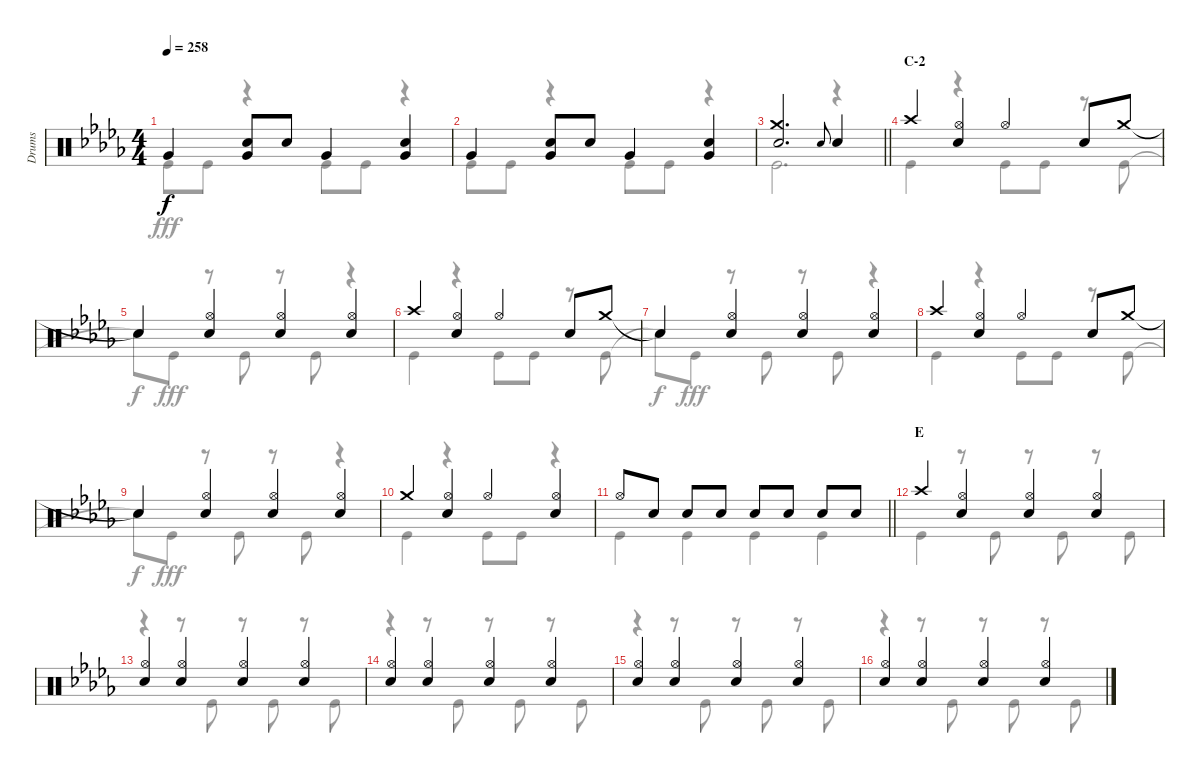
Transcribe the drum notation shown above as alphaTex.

\track ("Drums" "Drums") {instrument percussion}
\staff {score}
\articulation defaults
\voice
\ts (4 4)
\tempo 258
\clef neutral
\ks db "Very Low Tom (hit)".4{dy f}
("Snare (hit) 2" "Very Low Tom (hit)").8 "Snare (hit) 2".8 "Very Low Tom (hit)".4 ("Snare (hit) 2" "Very Low Tom (hit)").4 |
"Very Low Tom (hit)".4 ("Snare (hit) 2" "Very Low Tom (hit)").8 "Snare (hit) 2".8 "Very Low Tom (hit)".4 ("Snare (hit) 2" "Very Low Tom (hit)").4 |
\barLineRight lightlight
("Crash medium (hit)" "Snare (hit) 2").2{d} "Snare (hit) 2".8{gr onbeat} "Snare (hit) 2".4 |
\section ("" "C-2")
"Crash high (hit)".4 ("Hi-Hat (open)" "Snare (hit) 2").4 "Hi-Hat (open)".4 "Snare (hit) 2".8 "Crash medium (hit)".8 |
"Snare (hit)"{t}.4 ("Hi-Hat (open)" "Snare (hit) 2").4 ("Hi-Hat (open)" "Snare (hit) 2").4 ("Hi-Hat (open)" "Snare (hit) 2").4 |
"Crash high (hit)".4 ("Hi-Hat (open)" "Snare (hit) 2").4 "Hi-Hat (open)".4 "Snare (hit) 2".8 "Crash medium (hit)".8 |
"Snare (hit)"{t}.4 ("Hi-Hat (open)" "Snare (hit) 2").4 ("Hi-Hat (open)" "Snare (hit) 2").4 ("Hi-Hat (open)" "Snare (hit) 2").4 |
"Crash high (hit)".4 ("Hi-Hat (open)" "Snare (hit) 2").4 "Hi-Hat (open)".4 "Snare (hit) 2".8 "Crash medium (hit)".8 |
"Snare (hit)"{t}.4 ("Hi-Hat (open)" "Snare (hit) 2").4 ("Hi-Hat (open)" "Snare (hit) 2").4 ("Hi-Hat (open)" "Snare (hit) 2").4 |
"Crash medium (hit)".4 ("Hi-Hat (open)" "Snare (hit) 2").4 "Hi-Hat (open)".4 ("Hi-Hat (open)" "Snare (hit) 2").4 |
\barLineRight lightlight "Hi-Hat (open)".8 "Snare (hit) 2".8 "Snare (hit) 2".8 "Snare (hit) 2".8 "Snare (hit) 2".8 "Snare (hit) 2".8 "Snare (hit) 2".8 "Snare (hit) 2".8
|
\section ("" "E")
"Crash high (hit)".4 ("Hi-Hat (open)" "Snare (hit) 2").4 ("Hi-Hat (open)" "Snare (hit) 2").4 ("Hi-Hat (open)" "Snare (hit) 2").4 |
("Hi-Hat (open)" "Snare (hit) 2").4 ("Hi-Hat (open)" "Snare (hit) 2").4 ("Hi-Hat (open)" "Snare (hit) 2").4 ("Hi-Hat (open)" "Snare (hit) 2").4 |
("Hi-Hat (open)" "Snare (hit) 2").4 ("Hi-Hat (open)" "Snare (hit) 2").4 ("Hi-Hat (open)" "Snare (hit) 2").4 ("Hi-Hat (open)" "Snare (hit) 2").4 |
("Hi-Hat (open)" "Snare (hit) 2").4 ("Hi-Hat (open)" "Snare (hit) 2").4 ("Hi-Hat (open)" "Snare (hit) 2").4 ("Hi-Hat (open)" "Snare (hit) 2").4 |
("Hi-Hat (open)" "Snare (hit) 2").4 ("Hi-Hat (open)" "Snare (hit) 2").4 ("Hi-Hat (open)" "Snare (hit) 2").4 ("Hi-Hat (open)" "Snare (hit) 2").4
\voice
\clef neutral
\ottava regular
\simile none
\ks db "Kick (hit)".8{dy fff} "Kick (hit)".8
r.4 "Kick (hit)".8 "Kick (hit)".8 r.4 |
"Kick (hit)".8 "Kick (hit)".8 r.4 "Kick (hit)".8 "Kick (hit)".8 r.4 |
\barLineRight lightlight "Kick (hit)".2{d}
r.4 |
"Kick (hit)".4 r.4 "Kick (hit)".8 "Kick (hit)".8 r.8 "Kick (hit)".8 |
"Snare (hit)"{t}.8{dy f} "Kick (hit)".8{dy fff} r.8 "Kick (hit)".8 r.8 "Kick (hit)".8 r.4 |
"Kick (hit)".4 r.4 "Kick (hit)".8 "Kick (hit)".8 r.8 "Kick (hit)".8 |
"Snare (hit)"{t}.8{dy f} "Kick (hit)".8{dy fff} r.8 "Kick (hit)".8 r.8 "Kick (hit)".8 r.4 |
"Kick (hit)".4 r.4 "Kick (hit)".8 "Kick (hit)".8 r.8 "Kick (hit)".8 |
"Snare (hit)"{t}.8{dy f} "Kick (hit)".8{dy fff} r.8 "Kick (hit)".8 r.8 "Kick (hit)".8 r.4 |
"Kick (hit)".4 r.4 "Kick (hit)".8 "Kick (hit)".8 r.4 |
\barLineRight lightlight "Kick (hit)".4 "Kick (hit)".4 "Kick (hit)".4 "Kick (hit)".4
|
"Kick (hit)".4 r.8 "Kick (hit)".8 r.8 "Kick (hit)".8 r.8 "Kick (hit)".8 |
r.4 r.8 "Kick (hit)".8 r.8 "Kick (hit)".8 r.8 "Kick (hit)".8 |
r.4 r.8 "Kick (hit)".8 r.8 "Kick (hit)".8 r.8 "Kick (hit)".8 |
r.4 r.8 "Kick (hit)".8 r.8 "Kick (hit)".8 r.8 "Kick (hit)".8 |
r.4 r.8 "Kick (hit)".8 r.8 "Kick (hit)".8 r.8 "Kick (hit)".8
